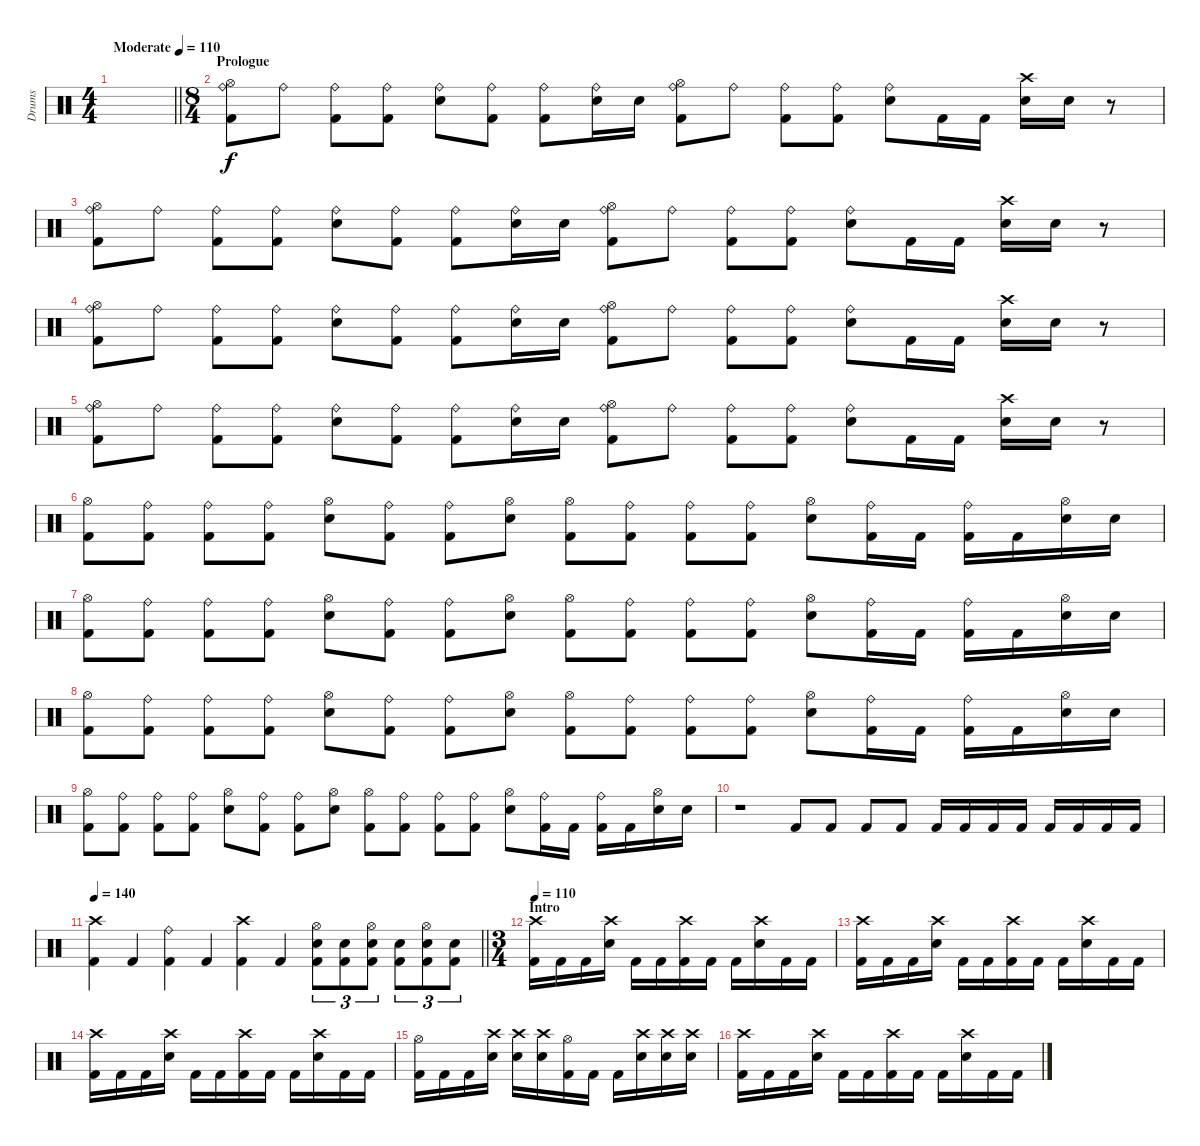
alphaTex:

\track ("Drums" "Drums") {instrument percussion}
\staff {score}
\articulation defaults
\ts (4 4)
\tempo (110 "Moderate")
\clef neutral
\barLineRight lightlight
\ks c
|
\ts (8 4)
\section ("" "Prologue")
("Hi-Hat (open)" "Ride (bell)" "Kick (hit) 2").8 "Ride (bell)".8 ("Ride (bell)" "Kick (hit) 2").8 ("Ride (bell)" "Kick (hit) 2").8 ("Ride (bell)" "Electric Snare (hit)").8 ("Ride (bell)" "Kick (hit) 2").8 ("Ride (bell)" "Kick (hit) 2").8 ("Ride (bell)" "Electric Snare (hit)").16 "Electric Snare (hit)".16 ("Hi-Hat (open)" "Ride (bell)" "Kick (hit) 2").8 "Ride (bell)".8 ("Ride (bell)" "Kick (hit) 2").8 ("Ride (bell)" "Kick (hit) 2").8 ("Ride (bell)" "Electric Snare (hit)").8 "Kick (hit) 2".16 "Kick (hit) 2".16 ("Crash high (hit)" "Electric Snare (hit)").16 "Electric Snare (hit)".16 r.8 |
("Hi-Hat (open)" "Ride (bell)" "Kick (hit) 2").8 "Ride (bell)".8 ("Ride (bell)" "Kick (hit) 2").8 ("Ride (bell)" "Kick (hit) 2").8 ("Ride (bell)" "Electric Snare (hit)").8 ("Ride (bell)" "Kick (hit) 2").8 ("Ride (bell)" "Kick (hit) 2").8 ("Ride (bell)" "Electric Snare (hit)").16 "Electric Snare (hit)".16 ("Hi-Hat (open)" "Ride (bell)" "Kick (hit) 2").8 "Ride (bell)".8 ("Ride (bell)" "Kick (hit) 2").8 ("Ride (bell)" "Kick (hit) 2").8 ("Ride (bell)" "Electric Snare (hit)").8 "Kick (hit) 2".16 "Kick (hit) 2".16 ("Crash high (hit)" "Electric Snare (hit)").16 "Electric Snare (hit)".16 r.8 |
("Hi-Hat (open)" "Ride (bell)" "Kick (hit) 2").8 "Ride (bell)".8 ("Ride (bell)" "Kick (hit) 2").8 ("Ride (bell)" "Kick (hit) 2").8 ("Ride (bell)" "Electric Snare (hit)").8 ("Ride (bell)" "Kick (hit) 2").8 ("Ride (bell)" "Kick (hit) 2").8 ("Ride (bell)" "Electric Snare (hit)").16 "Electric Snare (hit)".16 ("Hi-Hat (open)" "Ride (bell)" "Kick (hit) 2").8 "Ride (bell)".8 ("Ride (bell)" "Kick (hit) 2").8 ("Ride (bell)" "Kick (hit) 2").8 ("Ride (bell)" "Electric Snare (hit)").8 "Kick (hit) 2".16 "Kick (hit) 2".16 ("Crash high (hit)" "Electric Snare (hit)").16 "Electric Snare (hit)".16 r.8 |
("Hi-Hat (open)" "Ride (bell)" "Kick (hit) 2").8 "Ride (bell)".8 ("Ride (bell)" "Kick (hit) 2").8 ("Ride (bell)" "Kick (hit) 2").8 ("Ride (bell)" "Electric Snare (hit)").8 ("Ride (bell)" "Kick (hit) 2").8 ("Ride (bell)" "Kick (hit) 2").8 ("Ride (bell)" "Electric Snare (hit)").16 "Electric Snare (hit)".16 ("Hi-Hat (open)" "Ride (bell)" "Kick (hit) 2").8 "Ride (bell)".8 ("Ride (bell)" "Kick (hit) 2").8 ("Ride (bell)" "Kick (hit) 2").8 ("Ride (bell)" "Electric Snare (hit)").8 "Kick (hit) 2".16 "Kick (hit) 2".16 ("Crash high (hit)" "Electric Snare (hit)").16 "Electric Snare (hit)".16 r.8 |
("Hi-Hat (open)" "Kick (hit) 2").8 ("Ride (bell)" "Kick (hit) 2").8 ("Ride (bell)" "Kick (hit) 2").8 ("Ride (bell)" "Kick (hit) 2").8 ("Hi-Hat (open)" "Electric Snare (hit)").8 ("Ride (bell)" "Kick (hit) 2").8 ("Ride (bell)" "Kick (hit) 2").8 ("Hi-Hat (open)" "Electric Snare (hit)").8 ("Hi-Hat (open)" "Kick (hit) 2").8 ("Ride (bell)" "Kick (hit) 2").8 ("Ride (bell)" "Kick (hit) 2").8 ("Ride (bell)" "Kick (hit) 2").8 ("Hi-Hat (open)" "Electric Snare (hit)").8 ("Ride (bell)" "Kick (hit) 2").16 "Kick (hit) 2".16 ("Ride (bell)" "Kick (hit) 2").16 "Kick (hit) 2".16 ("Hi-Hat (open)" "Electric Snare (hit)").16 "Electric Snare (hit)".16 |
("Hi-Hat (open)" "Kick (hit) 2").8 ("Ride (bell)" "Kick (hit) 2").8 ("Ride (bell)" "Kick (hit) 2").8 ("Ride (bell)" "Kick (hit) 2").8 ("Hi-Hat (open)" "Electric Snare (hit)").8 ("Ride (bell)" "Kick (hit) 2").8 ("Ride (bell)" "Kick (hit) 2").8 ("Hi-Hat (open)" "Electric Snare (hit)").8 ("Hi-Hat (open)" "Kick (hit) 2").8 ("Ride (bell)" "Kick (hit) 2").8 ("Ride (bell)" "Kick (hit) 2").8 ("Ride (bell)" "Kick (hit) 2").8 ("Hi-Hat (open)" "Electric Snare (hit)").8 ("Ride (bell)" "Kick (hit) 2").16 "Kick (hit) 2".16 ("Ride (bell)" "Kick (hit) 2").16 "Kick (hit) 2".16 ("Hi-Hat (open)" "Electric Snare (hit)").16 "Electric Snare (hit)".16 |
("Hi-Hat (open)" "Kick (hit) 2").8 ("Ride (bell)" "Kick (hit) 2").8 ("Ride (bell)" "Kick (hit) 2").8 ("Ride (bell)" "Kick (hit) 2").8 ("Hi-Hat (open)" "Electric Snare (hit)").8 ("Ride (bell)" "Kick (hit) 2").8 ("Ride (bell)" "Kick (hit) 2").8 ("Hi-Hat (open)" "Electric Snare (hit)").8 ("Hi-Hat (open)" "Kick (hit) 2").8 ("Ride (bell)" "Kick (hit) 2").8 ("Ride (bell)" "Kick (hit) 2").8 ("Ride (bell)" "Kick (hit) 2").8 ("Hi-Hat (open)" "Electric Snare (hit)").8 ("Ride (bell)" "Kick (hit) 2").16 "Kick (hit) 2".16 ("Ride (bell)" "Kick (hit) 2").16 "Kick (hit) 2".16 ("Hi-Hat (open)" "Electric Snare (hit)").16 "Electric Snare (hit)".16 |
("Hi-Hat (open)" "Kick (hit) 2").8 ("Ride (bell)" "Kick (hit) 2").8 ("Ride (bell)" "Kick (hit) 2").8 ("Ride (bell)" "Kick (hit) 2").8 ("Hi-Hat (open)" "Electric Snare (hit)").8 ("Ride (bell)" "Kick (hit) 2").8 ("Ride (bell)" "Kick (hit) 2").8 ("Hi-Hat (open)" "Electric Snare (hit)").8 ("Hi-Hat (open)" "Kick (hit) 2").8 ("Ride (bell)" "Kick (hit) 2").8 ("Ride (bell)" "Kick (hit) 2").8 ("Ride (bell)" "Kick (hit) 2").8 ("Hi-Hat (open)" "Electric Snare (hit)").8 ("Ride (bell)" "Kick (hit) 2").16 "Kick (hit) 2".16 ("Ride (bell)" "Kick (hit) 2").16 "Kick (hit) 2".16 ("Hi-Hat (open)" "Electric Snare (hit)").16 "Electric Snare (hit)".16 |
r.1 "Kick (hit) 2".8 "Kick (hit) 2".8 "Kick (hit) 2".8 "Kick (hit) 2".8 "Kick (hit) 2".16 "Kick (hit) 2".16 "Kick (hit) 2".16 "Kick (hit) 2".16 "Kick (hit) 2".16 "Kick (hit) 2".16 "Kick (hit) 2".16 "Kick (hit) 2".16 |
\tempo 140
\barLineRight lightlight
("Crash high (hit)" "Kick (hit) 2").4 "Kick (hit) 2".4 ("Ride (bell)" "Kick (hit) 2").4 "Kick (hit) 2".4 ("Crash high (hit)" "Kick (hit) 2").4 "Kick (hit) 2".4 ("Hi-Hat (open)" "Electric Snare (hit)" "Kick (hit) 2").8{tu (3 2)} ("Electric Snare (hit)" "Kick (hit) 2").8{tu (3 2)} ("Hi-Hat (open)" "Electric Snare (hit)" "Kick (hit) 2").8{tu (3 2)} ("Electric Snare (hit)" "Kick (hit) 2").8{tu (3 2)} ("Hi-Hat (open)" "Electric Snare (hit)" "Kick (hit) 2").8{tu (3 2)} ("Electric Snare (hit)" "Kick (hit) 2").8{tu (3 2)} |
\ts (3 4)
\section ("" "Intro")
\tempo 110
("Crash high (hit)" "Kick (hit) 2").16 "Kick (hit) 2".16 "Kick (hit) 2".16 ("Crash high (hit)" "Electric Snare (hit)").16 "Kick (hit) 2".16 "Kick (hit) 2".16 ("Crash high (hit)" "Kick (hit) 2").16 "Kick (hit) 2".16 "Kick (hit) 2".16 ("Crash high (hit)" "Electric Snare (hit)").16 "Kick (hit) 2".16 "Kick (hit) 2".16 |
("Crash high (hit)" "Kick (hit) 2").16 "Kick (hit) 2".16 "Kick (hit) 2".16 ("Crash high (hit)" "Electric Snare (hit)").16 "Kick (hit) 2".16 "Kick (hit) 2".16 ("Crash high (hit)" "Kick (hit) 2").16 "Kick (hit) 2".16 "Kick (hit) 2".16 ("Crash high (hit)" "Electric Snare (hit)").16 "Kick (hit) 2".16 "Kick (hit) 2".16 |
("Crash high (hit)" "Kick (hit) 2").16 "Kick (hit) 2".16 "Kick (hit) 2".16 ("Crash high (hit)" "Electric Snare (hit)").16 "Kick (hit) 2".16 "Kick (hit) 2".16 ("Crash high (hit)" "Kick (hit) 2").16 "Kick (hit) 2".16 "Kick (hit) 2".16 ("Crash high (hit)" "Electric Snare (hit)").16 "Kick (hit) 2".16 "Kick (hit) 2".16 |
("Hi-Hat (open)" "Kick (hit) 2").16 "Kick (hit) 2".16 "Kick (hit) 2".16 ("Crash high (hit)" "Electric Snare (hit)").16 ("Crash high (hit)" "Electric Snare (hit)").16 ("Crash high (hit)" "Electric Snare (hit)").16 ("Hi-Hat (open)" "Kick (hit) 2").16 "Kick (hit) 2".16 "Kick (hit) 2".16 ("Crash high (hit)" "Electric Snare (hit)").16 ("Crash high (hit)" "Electric Snare (hit)").16 ("Crash high (hit)" "Electric Snare (hit)").16 |
("Crash high (hit)" "Kick (hit) 2").16 "Kick (hit) 2".16 "Kick (hit) 2".16 ("Crash high (hit)" "Electric Snare (hit)").16 "Kick (hit) 2".16 "Kick (hit) 2".16 ("Crash high (hit)" "Kick (hit) 2").16 "Kick (hit) 2".16 "Kick (hit) 2".16 ("Crash high (hit)" "Electric Snare (hit)").16 "Kick (hit) 2".16 "Kick (hit) 2".16
